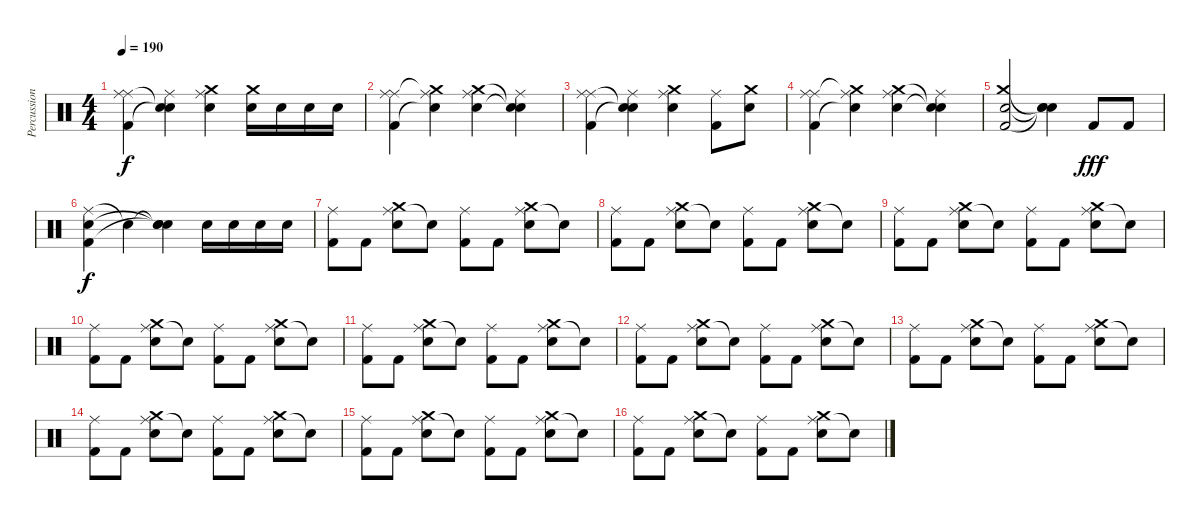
\track ("Percussions" "Percussion") {instrument percussion}
\staff {score}
\articulation defaults
\ts (4 4)
\tempo 190
\clef neutral
\ks c
("Ride (middle)" "Ride (middle)" "Kick (hit) 2").4{dy f} ("Ride (middle)" "Snare (hit)"{t} "Snare (hit)"{t}).4 ("Ride (middle)" "Crash medium (hit)" "Electric Snare (hit)").4 ("Crash medium (hit)" "Electric Snare (hit)").16 "Electric Snare (hit)".16 "Electric Snare (hit)".16 "Electric Snare (hit)".16 |
("Ride (middle)" "Ride (middle)" "Kick (hit) 2").4 ("Ride (middle)" "Crash medium (hit)"{t} "Electric Snare (hit)"{t}).4 ("Ride (middle)" "Crash medium (hit)" "Electric Snare (hit)").4 ("Ride (middle)" "Snare (hit)"{t} "Snare (hit)"{t}).4 |
("Ride (middle)" "Ride (middle)" "Kick (hit) 2").4 ("Ride (middle)" "Snare (hit)"{t} "Snare (hit)"{t}).4 ("Ride (middle)" "Crash medium (hit)" "Electric Snare (hit)").4 ("Ride (middle)" "Kick (hit) 2").8 ("Crash medium (hit)" "Electric Snare (hit)").8 |
("Ride (middle)" "Ride (middle)" "Kick (hit) 2").4 ("Ride (middle)" "Crash medium (hit)"{t} "Electric Snare (hit)"{t}).4 ("Ride (middle)" "Crash medium (hit)" "Electric Snare (hit)").4 ("Ride (middle)" "Snare (hit)"{t} "Snare (hit)"{t}).4 |
("Kick (hit) 2" "Electric Snare (hit)" "Crash medium (hit)").2 ("Snare (hit)"{t} "Snare (hit)"{t} "Snare (hit)"{t}).4 "Kick (hit) 2".8{dy fff} "Kick (hit) 2".8 |
("Ride (middle)" "Electric Snare (hit)" "Kick (hit) 2").4{dy f} "Snare (hit)"{t}.4 ("Snare (hit)"{t} "Snare (hit)"{t} "Snare (hit)"{t}).4 "Electric Snare (hit)".16 "Electric Snare (hit)".16 "Electric Snare (hit)".16 "Electric Snare (hit)".16 |
("Ride (middle)" "Kick (hit) 2").8 "Kick (hit) 2".8 ("Ride (middle)" "Crash medium (hit)" "Electric Snare (hit)").8 "Snare (hit)"{t}.8 ("Ride (middle)" "Kick (hit) 2").8 "Kick (hit) 2".8 ("Ride (middle)" "Crash medium (hit)" "Electric Snare (hit)").8 "Snare (hit)"{t}.8 |
("Ride (middle)" "Kick (hit) 2").8 "Kick (hit) 2".8 ("Ride (middle)" "Crash medium (hit)" "Electric Snare (hit)").8 "Snare (hit)"{t}.8 ("Ride (middle)" "Kick (hit) 2").8 "Kick (hit) 2".8 ("Ride (middle)" "Crash medium (hit)" "Electric Snare (hit)").8 "Snare (hit)"{t}.8 |
("Ride (middle)" "Kick (hit) 2").8 "Kick (hit) 2".8 ("Ride (middle)" "Crash medium (hit)" "Electric Snare (hit)").8 "Snare (hit)"{t}.8 ("Ride (middle)" "Kick (hit) 2").8 "Kick (hit) 2".8 ("Ride (middle)" "Crash medium (hit)" "Electric Snare (hit)").8 "Snare (hit)"{t}.8 |
("Ride (middle)" "Kick (hit) 2").8 "Kick (hit) 2".8 ("Ride (middle)" "Crash medium (hit)" "Electric Snare (hit)").8 "Snare (hit)"{t}.8 ("Ride (middle)" "Kick (hit) 2").8 "Kick (hit) 2".8 ("Ride (middle)" "Crash medium (hit)" "Electric Snare (hit)").8 "Snare (hit)"{t}.8 |
("Ride (middle)" "Kick (hit) 2").8 "Kick (hit) 2".8 ("Ride (middle)" "Crash medium (hit)" "Electric Snare (hit)").8 "Snare (hit)"{t}.8 ("Ride (middle)" "Kick (hit) 2").8 "Kick (hit) 2".8 ("Ride (middle)" "Crash medium (hit)" "Electric Snare (hit)").8 "Snare (hit)"{t}.8 |
("Ride (middle)" "Kick (hit) 2").8 "Kick (hit) 2".8 ("Ride (middle)" "Crash medium (hit)" "Electric Snare (hit)").8 "Snare (hit)"{t}.8 ("Ride (middle)" "Kick (hit) 2").8 "Kick (hit) 2".8 ("Ride (middle)" "Crash medium (hit)" "Electric Snare (hit)").8 "Snare (hit)"{t}.8 |
("Ride (middle)" "Kick (hit) 2").8 "Kick (hit) 2".8 ("Ride (middle)" "Crash medium (hit)" "Electric Snare (hit)").8 "Snare (hit)"{t}.8 ("Ride (middle)" "Kick (hit) 2").8 "Kick (hit) 2".8 ("Ride (middle)" "Crash medium (hit)" "Electric Snare (hit)").8 "Snare (hit)"{t}.8 |
("Ride (middle)" "Kick (hit) 2").8 "Kick (hit) 2".8 ("Ride (middle)" "Crash medium (hit)" "Electric Snare (hit)").8 "Snare (hit)"{t}.8 ("Ride (middle)" "Kick (hit) 2").8 "Kick (hit) 2".8 ("Ride (middle)" "Crash medium (hit)" "Electric Snare (hit)").8 "Snare (hit)"{t}.8 |
("Ride (middle)" "Kick (hit) 2").8 "Kick (hit) 2".8 ("Ride (middle)" "Crash medium (hit)" "Electric Snare (hit)").8 "Snare (hit)"{t}.8 ("Ride (middle)" "Kick (hit) 2").8 "Kick (hit) 2".8 ("Ride (middle)" "Crash medium (hit)" "Electric Snare (hit)").8 "Snare (hit)"{t}.8 |
("Ride (middle)" "Kick (hit) 2").8 "Kick (hit) 2".8 ("Ride (middle)" "Crash medium (hit)" "Electric Snare (hit)").8 "Snare (hit)"{t}.8 ("Ride (middle)" "Kick (hit) 2").8 "Kick (hit) 2".8 ("Ride (middle)" "Crash medium (hit)" "Electric Snare (hit)").8 "Snare (hit)"{t}.8
